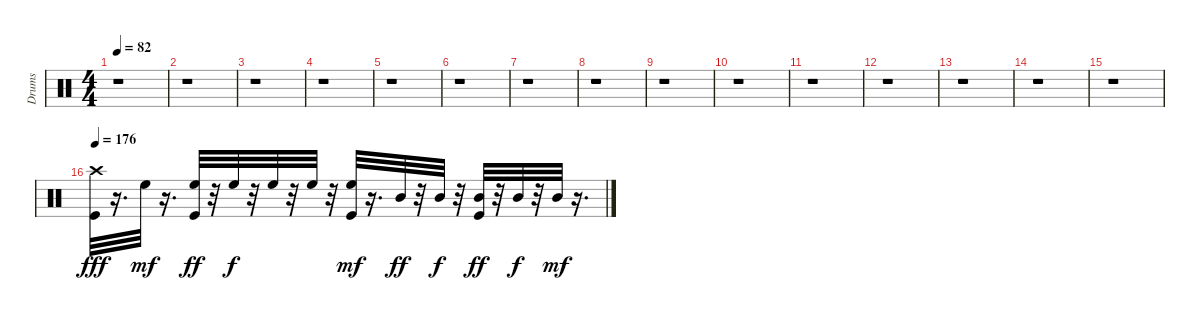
\track ("Drums" "Drums") {instrument percussion}
\staff {score}
\articulation defaults
\ts (4 4)
\tempo 82
\clef neutral
\ks c
r.1{dy mf} |
r.1 |
r.1 |
r.1 |
r.1 |
r.1 |
r.1 |
r.1 |
r.1 |
r.1 |
r.1 |
r.1 |
r.1 |
r.1 |
r.1 |
\tempo 176
("Kick (hit)" "Crash high (hit)").32{dy fff} r.16{d} "High Floor Tom (hit)".32{dy mf} r.16{d} ("Kick (hit)" "High Floor Tom (hit)").32{dy ff} r.32 "High Floor Tom (hit)".32{dy f} r.32 "High Floor Tom (hit)".32 r.32 "High Floor Tom (hit)".32 r.32 ("Kick (hit)" "High Floor Tom (hit)").32{dy mf} r.16{d} "Mid Tom (hit)".32{dy ff} r.32 "Mid Tom (hit)".32{dy f} r.32 ("Kick (hit)" "Mid Tom (hit)").32{dy ff} r.32 "Mid Tom (hit)".32{dy f} r.32 "Mid Tom (hit)".32{dy mf} r.16{d}
